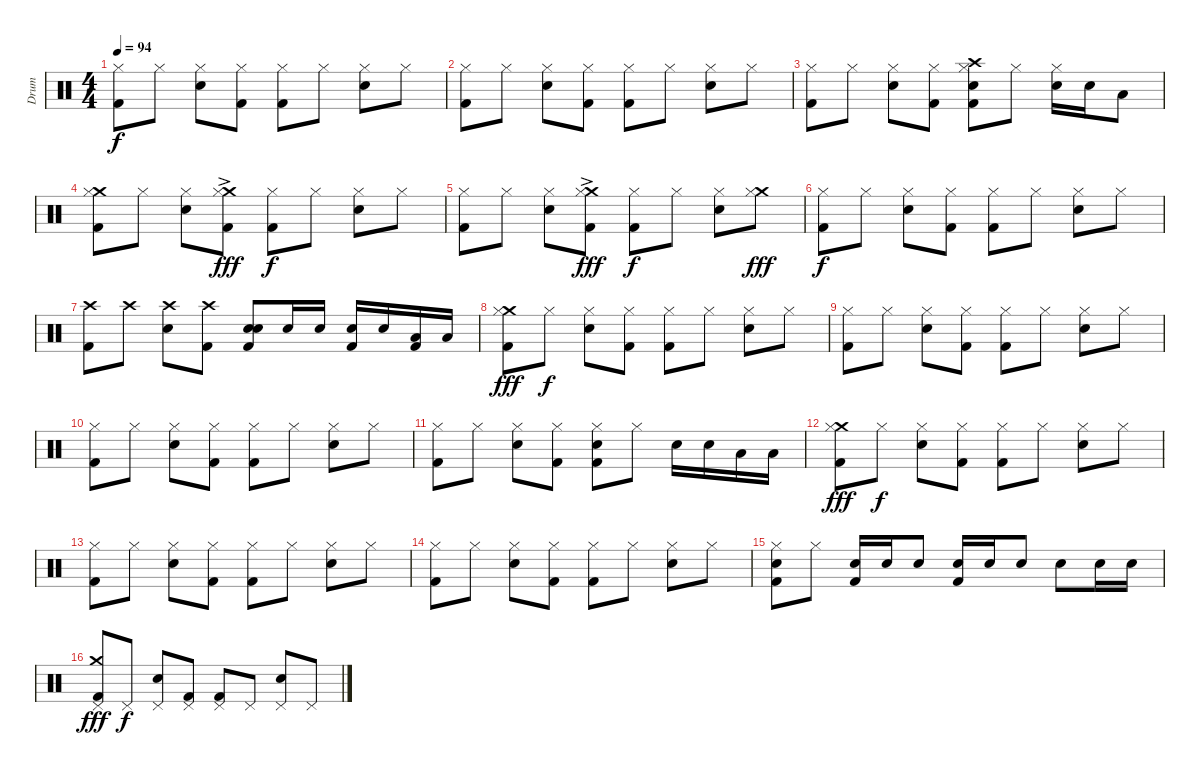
\track ("Drum" "Drum") {instrument percussion}
\staff {score}
\articulation defaults
\ts (4 4)
\tempo 94
\clef neutral
\ks c
("Hi-Hat (closed)" "Kick (hit) 2").8{dy f} "Hi-Hat (closed)".8 ("Hi-Hat (closed)" "Snare (hit) 2").8 ("Hi-Hat (closed)" "Kick (hit) 2").8 ("Hi-Hat (closed)" "Kick (hit) 2").8 "Hi-Hat (closed)".8 ("Hi-Hat (closed)" "Snare (hit) 2").8 "Hi-Hat (closed)".8 |
("Hi-Hat (closed)" "Kick (hit) 2").8 "Hi-Hat (closed)".8 ("Hi-Hat (closed)" "Snare (hit) 2").8 ("Hi-Hat (closed)" "Kick (hit) 2").8 ("Hi-Hat (closed)" "Kick (hit) 2").8 "Hi-Hat (closed)".8 ("Hi-Hat (closed)" "Snare (hit) 2").8 "Hi-Hat (closed)".8 |
("Hi-Hat (closed)" "Kick (hit) 2").8 "Hi-Hat (closed)".8 ("Hi-Hat (closed)" "Snare (hit) 2").8 ("Hi-Hat (closed)" "Kick (hit) 2").8 ("Crash high (hit)" "Hi-Hat (closed)" "Snare (hit) 2" "Kick (hit) 2").8 "Hi-Hat (closed)".8 ("Hi-Hat (closed)" "Snare (hit) 2").16 "Snare (hit) 2".16 "Low Floor Tom (hit)".8 |
("Crash medium (hit)" "Hi-Hat (closed)" "Kick (hit) 2").8 "Hi-Hat (closed)".8 ("Hi-Hat (closed)" "Snare (hit) 2").8 ("Crash medium (hit)"{ac} "Hi-Hat (closed)" "Kick (hit) 2").8{dy fff} ("Hi-Hat (closed)" "Kick (hit) 2").8{dy f} "Hi-Hat (closed)".8 ("Hi-Hat (closed)" "Snare (hit) 2").8 "Hi-Hat (closed)".8 |
("Hi-Hat (closed)" "Kick (hit) 2").8 "Hi-Hat (closed)".8 ("Hi-Hat (closed)" "Snare (hit) 2").8 ("Crash medium (hit)"{ac} "Hi-Hat (closed)" "Kick (hit) 2").8{dy fff} ("Hi-Hat (closed)" "Kick (hit) 2").8{dy f} "Hi-Hat (closed)".8 ("Hi-Hat (closed)" "Snare (hit) 2").8 ("Crash medium (hit)" "Hi-Hat (closed)").8{dy fff} |
("Hi-Hat (closed)" "Kick (hit) 2").8{dy f} "Hi-Hat (closed)".8 ("Hi-Hat (closed)" "Snare (hit) 2").8 ("Hi-Hat (closed)" "Kick (hit) 2").8 ("Hi-Hat (closed)" "Kick (hit) 2").8 "Hi-Hat (closed)".8 ("Hi-Hat (closed)" "Snare (hit) 2").8 "Hi-Hat (closed)".8 |
("Crash high (hit)" "Kick (hit) 2").8 "Crash high (hit)".8 ("Crash high (hit)" "Snare (hit) 2").8 ("Crash high (hit)" "Kick (hit) 2").8 ("Snare (hit) 2" "Snare (hit) 2" "Kick (hit) 2").8 "Snare (hit) 2".16 "Snare (hit) 2".16 ("Snare (hit) 2" "Kick (hit) 2").16 "Snare (hit) 2".16 ("Low Floor Tom (hit)" "Kick (hit) 2").16 "Low Floor Tom (hit)".16 |
("Crash medium (hit)" "Hi-Hat (closed)" "Kick (hit) 2").8{dy fff} "Hi-Hat (closed)".8{dy f} ("Hi-Hat (closed)" "Snare (hit) 2").8 ("Hi-Hat (closed)" "Kick (hit) 2").8 ("Hi-Hat (closed)" "Kick (hit) 2").8 "Hi-Hat (closed)".8 ("Hi-Hat (closed)" "Snare (hit) 2").8 "Hi-Hat (closed)".8 |
("Hi-Hat (closed)" "Kick (hit) 2").8 "Hi-Hat (closed)".8 ("Hi-Hat (closed)" "Snare (hit) 2").8 ("Hi-Hat (closed)" "Kick (hit) 2").8 ("Hi-Hat (closed)" "Kick (hit) 2").8 "Hi-Hat (closed)".8 ("Hi-Hat (closed)" "Snare (hit) 2").8 "Hi-Hat (closed)".8 |
("Hi-Hat (closed)" "Kick (hit) 2").8 "Hi-Hat (closed)".8 ("Hi-Hat (closed)" "Snare (hit) 2").8 ("Hi-Hat (closed)" "Kick (hit) 2").8 ("Hi-Hat (closed)" "Kick (hit) 2").8 "Hi-Hat (closed)".8 ("Hi-Hat (closed)" "Snare (hit) 2").8 "Hi-Hat (closed)".8 |
("Hi-Hat (closed)" "Kick (hit) 2").8 "Hi-Hat (closed)".8 ("Hi-Hat (closed)" "Snare (hit) 2").8 ("Hi-Hat (closed)" "Kick (hit) 2").8 ("Hi-Hat (closed)" "Snare (hit) 2" "Kick (hit) 2").8 "Hi-Hat (closed)".8 "Snare (hit) 2".16 "Snare (hit) 2".16 "Low Floor Tom (hit)".16 "Low Floor Tom (hit)".16 |
("Crash medium (hit)" "Hi-Hat (closed)" "Kick (hit) 2").8{dy fff} "Hi-Hat (closed)".8{dy f} ("Hi-Hat (closed)" "Snare (hit) 2").8 ("Hi-Hat (closed)" "Kick (hit) 2").8 ("Hi-Hat (closed)" "Kick (hit) 2").8 "Hi-Hat (closed)".8 ("Hi-Hat (closed)" "Snare (hit) 2").8 "Hi-Hat (closed)".8 |
("Hi-Hat (closed)" "Kick (hit) 2").8 "Hi-Hat (closed)".8 ("Hi-Hat (closed)" "Snare (hit) 2").8 ("Hi-Hat (closed)" "Kick (hit) 2").8 ("Hi-Hat (closed)" "Kick (hit) 2").8 "Hi-Hat (closed)".8 ("Hi-Hat (closed)" "Snare (hit) 2").8 "Hi-Hat (closed)".8 |
("Hi-Hat (closed)" "Kick (hit) 2").8 "Hi-Hat (closed)".8 ("Hi-Hat (closed)" "Snare (hit) 2").8 ("Hi-Hat (closed)" "Kick (hit) 2").8 ("Hi-Hat (closed)" "Kick (hit) 2").8 "Hi-Hat (closed)".8 ("Hi-Hat (closed)" "Snare (hit) 2").8 "Hi-Hat (closed)".8 |
("Hi-Hat (closed)" "Snare (hit) 2" "Kick (hit) 2").8 "Hi-Hat (closed)".8 ("Snare (hit) 2" "Kick (hit) 2").16 "Snare (hit) 2".16 "Snare (hit) 2".8 ("Snare (hit) 2" "Kick (hit) 2").16 "Snare (hit) 2".16 "Snare (hit) 2".8 "Snare (hit) 2".8 "Snare (hit) 2".16 "Snare (hit) 2".16 |
("Crash medium (hit)" "Pedal Hi-Hat (hit)" "Kick (hit) 2").8{dy fff} "Pedal Hi-Hat (hit)".8{dy f} ("Pedal Hi-Hat (hit)" "Snare (hit) 2").8 ("Pedal Hi-Hat (hit)" "Kick (hit) 2").8 ("Pedal Hi-Hat (hit)" "Kick (hit) 2").8 "Pedal Hi-Hat (hit)".8 ("Pedal Hi-Hat (hit)" "Snare (hit) 2").8 "Pedal Hi-Hat (hit)".8
